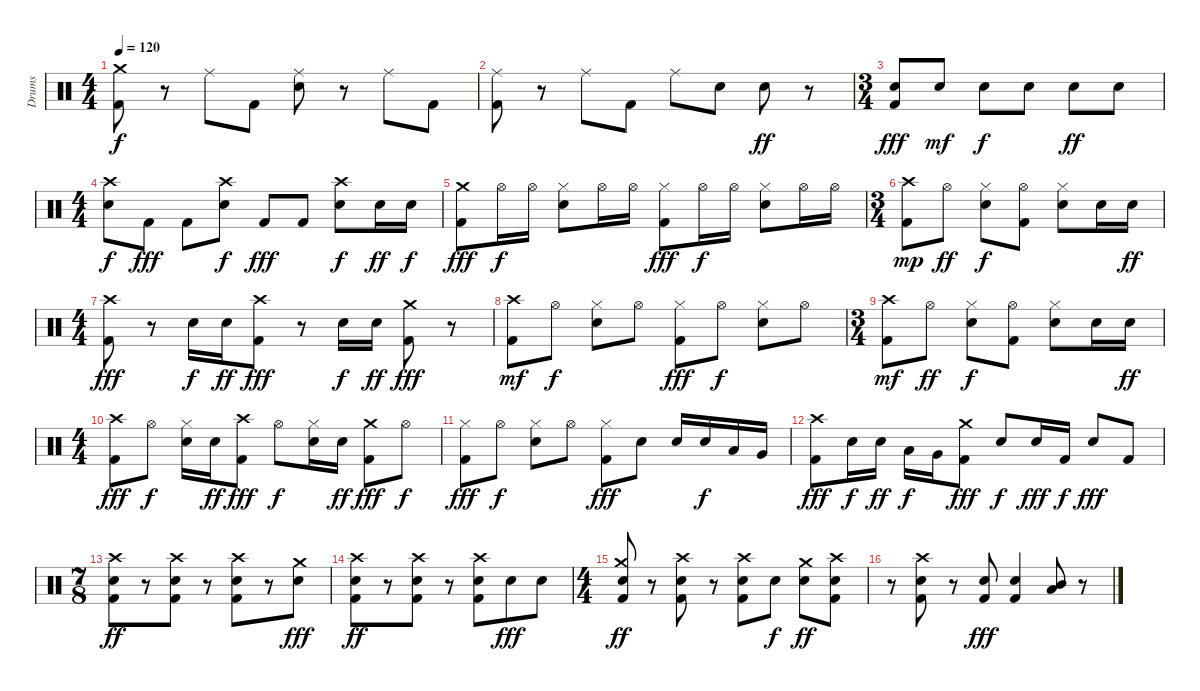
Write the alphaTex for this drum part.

\track ("Drums" "Drums") {instrument percussion}
\staff {score}
\articulation defaults
\ts (4 4)
\tempo 120
\clef neutral
\ks c
("Kick (hit) 2" "Crash medium (hit)").8{dy f} r.8 "Ride (middle)".8 "Kick (hit) 2".8 ("Snare (hit) 2" "Ride (middle)").8 r.8 "Ride (middle)".8 "Kick (hit) 2".8 |
("Kick (hit) 2" "Ride (middle)").8 r.8 "Ride (middle)".8 "Kick (hit) 2".8 "Ride (middle)".8 "Snare (hit) 2".8 "Snare (hit) 2".8{dy ff} r.8 |
\ts (3 4)
("Kick (hit) 2" "Snare (hit) 2").8{dy fff} "Snare (hit) 2".8{dy mf} "Snare (hit) 2".8{dy f} "Snare (hit) 2".8 "Snare (hit) 2".8{dy ff} "Snare (hit) 2".8 |
\ts (4 4)
("Snare (hit) 2" "Crash high (hit)").8{dy f} "Kick (hit) 2".8{dy fff} "Kick (hit) 2".8 ("Snare (hit) 2" "Crash high (hit)").8{dy f} "Kick (hit) 2".8{dy fff} "Kick (hit) 2".8 ("Snare (hit) 2" "Crash high (hit)").8{dy f} "Snare (hit) 2".16{dy ff} "Snare (hit) 2".16{dy f} |
("Kick (hit) 2" "Crash medium (hit)").8{dy fff} "Hi-Hat (open)".16{dy f} "Hi-Hat (open)".16 ("Snare (hit) 2" "Hi-Hat (closed)").8 "Hi-Hat (open)".16 "Hi-Hat (open)".16 ("Kick (hit) 2" "Hi-Hat (closed)").8{dy fff} "Hi-Hat (open)".16{dy f} "Hi-Hat (open)".16 ("Snare (hit) 2" "Hi-Hat (closed)").8 "Hi-Hat (open)".16 "Hi-Hat (open)".16 |
\ts (3 4)
("Kick (hit) 2" "Crash high (hit)").8{dy mp} "Hi-Hat (open)".8{dy ff} ("Snare (hit) 2" "Hi-Hat (closed)").8{dy f} ("Kick (hit) 2" "Hi-Hat (open)").8 ("Snare (hit) 2" "Hi-Hat (closed)").8 "Snare (hit) 2".16 "Snare (hit) 2".16{dy ff} |
\ts (4 4)
("Kick (hit) 2" "Crash high (hit)").8{dy fff} r.8 "Snare (hit) 2".16{dy f} "Snare (hit) 2".16{dy ff} ("Kick (hit) 2" "Crash high (hit)").8{dy fff} r.8 "Snare (hit) 2".16{dy f} "Snare (hit) 2".16{dy ff} ("Kick (hit) 2" "Crash medium (hit)").8{dy fff} r.8 |
("Kick (hit) 2" "Crash high (hit)").8{dy mf} "Hi-Hat (open)".8{dy f} ("Snare (hit) 2" "Hi-Hat (closed)").8 "Hi-Hat (open)".8 ("Kick (hit) 2" "Hi-Hat (closed)").8{dy fff} "Hi-Hat (open)".8{dy f} ("Snare (hit) 2" "Hi-Hat (closed)").8 "Hi-Hat (open)".8 |
\ts (3 4)
("Kick (hit) 2" "Crash high (hit)").8{dy mf} "Hi-Hat (open)".8{dy ff} ("Snare (hit) 2" "Hi-Hat (closed)").8{dy f} ("Kick (hit) 2" "Hi-Hat (open)").8 ("Snare (hit) 2" "Hi-Hat (closed)").8 "Snare (hit) 2".16 "Snare (hit) 2".16{dy ff} |
\ts (4 4)
("Kick (hit) 2" "Crash high (hit)").8{dy fff} "Hi-Hat (open)".8{dy f} ("Snare (hit) 2" "Hi-Hat (closed)").16 "Snare (hit) 2".16{dy ff} ("Kick (hit) 2" "Crash high (hit)").8{dy fff} "Hi-Hat (open)".8{dy f} ("Snare (hit) 2" "Hi-Hat (closed)").16 "Snare (hit) 2".16{dy ff} ("Kick (hit) 2" "Crash medium (hit)").8{dy fff} "Hi-Hat (open)".8{dy f} |
("Kick (hit) 2" "Hi-Hat (closed)").8{dy fff} "Hi-Hat (open)".8{dy f} ("Snare (hit) 2" "Hi-Hat (closed)").8 "Hi-Hat (open)".8 ("Kick (hit) 2" "Hi-Hat (closed)").8{dy fff} "Snare (hit) 2".8 "Snare (hit) 2".16 "Snare (hit) 2".16{dy f} "Low Tom (hit)".16 "Very Low Tom (hit)".16 |
("Kick (hit) 2" "Crash high (hit)").8{dy fff} "Snare (hit) 2".16{dy f} "Snare (hit) 2".16{dy ff} "Low Tom (hit)".16{dy f} "Very Low Tom (hit)".16 ("Kick (hit) 2" "Crash medium (hit)").8{dy fff} "Snare (hit) 2".8{dy f} "Snare (hit) 2".16{dy fff} "Kick (hit) 2".16{dy f} "Snare (hit) 2".8{dy fff} "Kick (hit) 2".8 |
\ts (7 8)
("Kick (hit) 2" "Snare (hit) 2" "Crash high (hit)").8{dy ff} r.8 ("Kick (hit) 2" "Snare (hit) 2" "Crash high (hit)").8 r.8 ("Kick (hit) 2" "Snare (hit) 2" "Crash high (hit)").8 r.8 ("Snare (hit) 2" "Crash medium (hit)").8{dy fff} |
("Kick (hit) 2" "Snare (hit) 2" "Crash high (hit)").8{dy ff} r.8 ("Kick (hit) 2" "Snare (hit) 2" "Crash high (hit)").8 r.8 ("Kick (hit) 2" "Snare (hit) 2" "Crash high (hit)").8 "Snare (hit) 2".8{dy fff} "Snare (hit) 2".8 |
\ts (4 4)
("Kick (hit) 2" "Snare (hit) 2" "Crash medium (hit)").8{dy ff} r.8 ("Kick (hit) 2" "Snare (hit) 2" "Crash high (hit)").8 r.8 ("Kick (hit) 2" "Snare (hit) 2" "Crash high (hit)").8 "Snare (hit) 2".8{dy f} ("Snare (hit) 2" "Crash medium (hit)").8{dy ff} ("Kick (hit) 2" "Snare (hit) 2" "Crash high (hit)").8 |
r.8 ("Kick (hit) 2" "Snare (hit) 2" "Crash high (hit)").8 r.8 ("Kick (hit) 2" "Snare (hit) 2").8{dy fff} ("Kick (hit) 2" "Snare (hit) 2").4 ("Low Floor Tom (hit)" "Mid Tom (hit)").8 r.8
